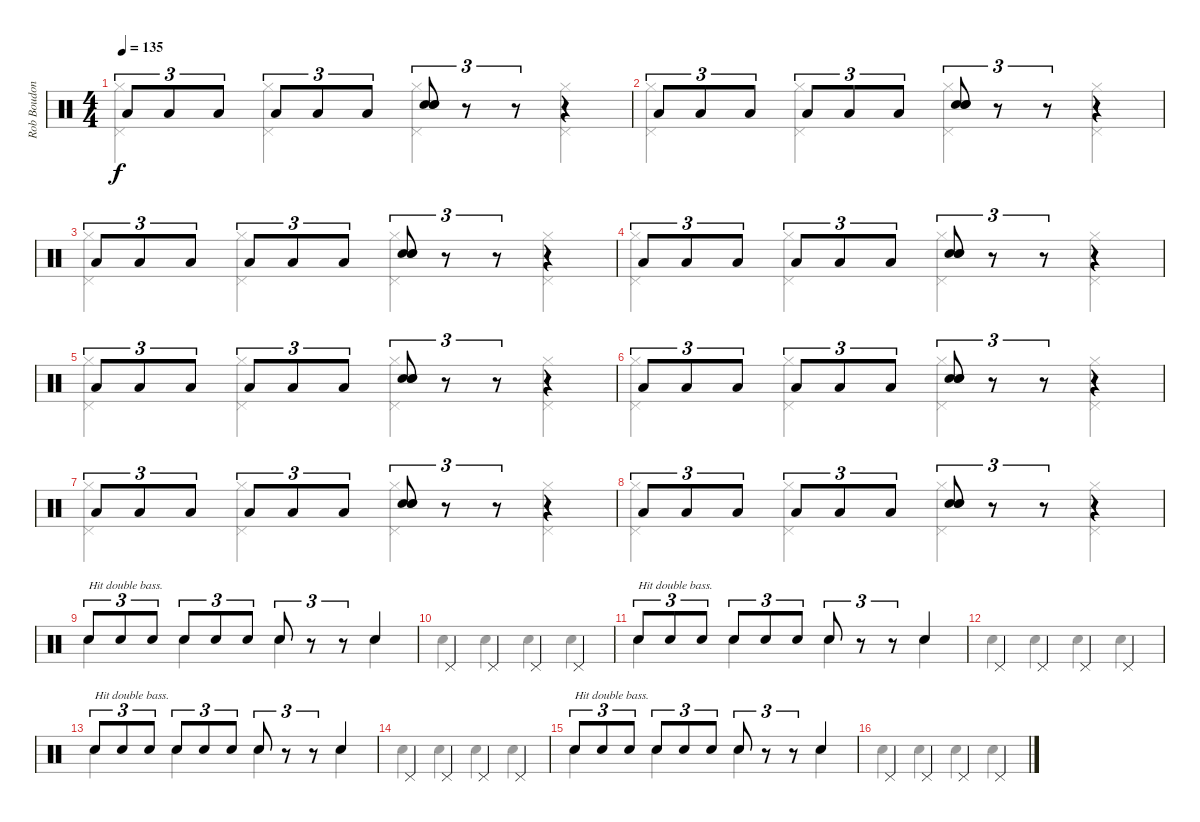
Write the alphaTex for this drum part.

\track ("Rob Boudon [Drums]" "Rob Boudon") {instrument percussion}
\staff {score}
\articulation defaults
\voice
\ts (4 4)
\tempo 135
\clef neutral
\ks c "Low Tom (hit)".8{tu (3 2) dy f} "Low Tom (hit)".8{tu (3 2)} "Low Tom (hit)".8{tu (3 2)} "Low Tom (hit)".8{tu (3 2)} "Low Tom (hit)".8{tu (3 2)} "Low Tom (hit)".8{tu (3 2)}
("Hand Clap (hit)" "Electric Snare (hit)" "Snare (hit) 2").8{tu (3 2)} r.8{tu (3 2)} r.8{tu (3 2)} r.4 |
"Low Tom (hit)".8{tu (3 2)} "Low Tom (hit)".8{tu (3 2)} "Low Tom (hit)".8{tu (3 2)} "Low Tom (hit)".8{tu (3 2)} "Low Tom (hit)".8{tu (3 2)} "Low Tom (hit)".8{tu (3 2)} ("Hand Clap (hit)" "Electric Snare (hit)" "Snare (hit) 2").8{tu (3 2)} r.8{tu (3 2)} r.8{tu (3 2)} r.4 |
"Low Tom (hit)".8{tu (3 2)} "Low Tom (hit)".8{tu (3 2)} "Low Tom (hit)".8{tu (3 2)} "Low Tom (hit)".8{tu (3 2)} "Low Tom (hit)".8{tu (3 2)} "Low Tom (hit)".8{tu (3 2)} ("Hand Clap (hit)" "Electric Snare (hit)" "Snare (hit) 2").8{tu (3 2)} r.8{tu (3 2)} r.8{tu (3 2)} r.4 |
"Low Tom (hit)".8{tu (3 2)} "Low Tom (hit)".8{tu (3 2)} "Low Tom (hit)".8{tu (3 2)} "Low Tom (hit)".8{tu (3 2)} "Low Tom (hit)".8{tu (3 2)} "Low Tom (hit)".8{tu (3 2)} ("Hand Clap (hit)" "Electric Snare (hit)" "Snare (hit) 2").8{tu (3 2)} r.8{tu (3 2)} r.8{tu (3 2)} r.4 |
"Low Tom (hit)".8{tu (3 2)} "Low Tom (hit)".8{tu (3 2)} "Low Tom (hit)".8{tu (3 2)} "Low Tom (hit)".8{tu (3 2)} "Low Tom (hit)".8{tu (3 2)} "Low Tom (hit)".8{tu (3 2)} ("Hand Clap (hit)" "Electric Snare (hit)" "Snare (hit) 2").8{tu (3 2)} r.8{tu (3 2)} r.8{tu (3 2)} r.4 |
"Low Tom (hit)".8{tu (3 2)} "Low Tom (hit)".8{tu (3 2)} "Low Tom (hit)".8{tu (3 2)} "Low Tom (hit)".8{tu (3 2)} "Low Tom (hit)".8{tu (3 2)} "Low Tom (hit)".8{tu (3 2)} ("Hand Clap (hit)" "Electric Snare (hit)" "Snare (hit) 2").8{tu (3 2)} r.8{tu (3 2)} r.8{tu (3 2)} r.4 |
"Low Tom (hit)".8{tu (3 2)} "Low Tom (hit)".8{tu (3 2)} "Low Tom (hit)".8{tu (3 2)} "Low Tom (hit)".8{tu (3 2)} "Low Tom (hit)".8{tu (3 2)} "Low Tom (hit)".8{tu (3 2)} ("Hand Clap (hit)" "Electric Snare (hit)" "Snare (hit) 2").8{tu (3 2)} r.8{tu (3 2)} r.8{tu (3 2)} r.4 |
"Low Tom (hit)".8{tu (3 2)} "Low Tom (hit)".8{tu (3 2)} "Low Tom (hit)".8{tu (3 2)} "Low Tom (hit)".8{tu (3 2)} "Low Tom (hit)".8{tu (3 2)} "Low Tom (hit)".8{tu (3 2)} ("Hand Clap (hit)" "Electric Snare (hit)" "Snare (hit) 2").8{tu (3 2)} r.8{tu (3 2)} r.8{tu (3 2)} r.4 |
"Snare (hit) 2".8{tu (3 2) txt "Hit double bass."} "Snare (hit) 2".8{tu (3 2)} "Snare (hit) 2".8{tu (3 2)} "Snare (hit) 2".8{tu (3 2)} "Snare (hit) 2".8{tu (3 2)} "Snare (hit) 2".8{tu (3 2)} "Snare (hit) 2".8{tu (3 2)} r.8{tu (3 2)} r.8{tu (3 2)} "Hand Clap (hit)".4 |
"Pedal Hi-Hat (hit)".4 "Pedal Hi-Hat (hit)".4 "Pedal Hi-Hat (hit)".4 "Pedal Hi-Hat (hit)".4 |
"Snare (hit) 2".8{tu (3 2) txt "Hit double bass."} "Snare (hit) 2".8{tu (3 2)} "Snare (hit) 2".8{tu (3 2)} "Snare (hit) 2".8{tu (3 2)} "Snare (hit) 2".8{tu (3 2)} "Snare (hit) 2".8{tu (3 2)} "Snare (hit) 2".8{tu (3 2)} r.8{tu (3 2)} r.8{tu (3 2)} "Hand Clap (hit)".4 |
"Pedal Hi-Hat (hit)".4 "Pedal Hi-Hat (hit)".4 "Pedal Hi-Hat (hit)".4 "Pedal Hi-Hat (hit)".4 |
"Snare (hit) 2".8{tu (3 2) txt "Hit double bass."} "Snare (hit) 2".8{tu (3 2)} "Snare (hit) 2".8{tu (3 2)} "Snare (hit) 2".8{tu (3 2)} "Snare (hit) 2".8{tu (3 2)} "Snare (hit) 2".8{tu (3 2)} "Snare (hit) 2".8{tu (3 2)} r.8{tu (3 2)} r.8{tu (3 2)} "Hand Clap (hit)".4 |
"Pedal Hi-Hat (hit)".4 "Pedal Hi-Hat (hit)".4 "Pedal Hi-Hat (hit)".4 "Pedal Hi-Hat (hit)".4 |
"Snare (hit) 2".8{tu (3 2) txt "Hit double bass."} "Snare (hit) 2".8{tu (3 2)} "Snare (hit) 2".8{tu (3 2)} "Snare (hit) 2".8{tu (3 2)} "Snare (hit) 2".8{tu (3 2)} "Snare (hit) 2".8{tu (3 2)} "Snare (hit) 2".8{tu (3 2)} r.8{tu (3 2)} r.8{tu (3 2)} "Hand Clap (hit)".4 |
"Pedal Hi-Hat (hit)".4 "Pedal Hi-Hat (hit)".4 "Pedal Hi-Hat (hit)".4 "Pedal Hi-Hat (hit)".4
\voice
\clef neutral
\ottava regular
\simile none
\ks c
("Hi-Hat (closed)" "Pedal Hi-Hat (hit)").4{dy f} ("Hi-Hat (closed)" "Pedal Hi-Hat (hit)").4 ("Hi-Hat (closed)" "Pedal Hi-Hat (hit)").4 ("Hi-Hat (closed)" "Pedal Hi-Hat (hit)").4 |
("Hi-Hat (closed)" "Pedal Hi-Hat (hit)").4 ("Hi-Hat (closed)" "Pedal Hi-Hat (hit)").4 ("Hi-Hat (closed)" "Pedal Hi-Hat (hit)").4 ("Hi-Hat (closed)" "Pedal Hi-Hat (hit)").4 |
("Hi-Hat (closed)" "Pedal Hi-Hat (hit)").4 ("Hi-Hat (closed)" "Pedal Hi-Hat (hit)").4 ("Hi-Hat (closed)" "Pedal Hi-Hat (hit)").4 ("Hi-Hat (closed)" "Pedal Hi-Hat (hit)").4 |
("Hi-Hat (closed)" "Pedal Hi-Hat (hit)").4 ("Hi-Hat (closed)" "Pedal Hi-Hat (hit)").4 ("Hi-Hat (closed)" "Pedal Hi-Hat (hit)").4 ("Hi-Hat (closed)" "Pedal Hi-Hat (hit)").4 |
("Hi-Hat (closed)" "Pedal Hi-Hat (hit)").4 ("Hi-Hat (closed)" "Pedal Hi-Hat (hit)").4 ("Hi-Hat (closed)" "Pedal Hi-Hat (hit)").4 ("Hi-Hat (closed)" "Pedal Hi-Hat (hit)").4 |
("Hi-Hat (closed)" "Pedal Hi-Hat (hit)").4 ("Hi-Hat (closed)" "Pedal Hi-Hat (hit)").4 ("Hi-Hat (closed)" "Pedal Hi-Hat (hit)").4 ("Hi-Hat (closed)" "Pedal Hi-Hat (hit)").4 |
("Hi-Hat (closed)" "Pedal Hi-Hat (hit)").4 ("Hi-Hat (closed)" "Pedal Hi-Hat (hit)").4 ("Hi-Hat (closed)" "Pedal Hi-Hat (hit)").4 ("Hi-Hat (closed)" "Pedal Hi-Hat (hit)").4 |
("Hi-Hat (closed)" "Pedal Hi-Hat (hit)").4 ("Hi-Hat (closed)" "Pedal Hi-Hat (hit)").4 ("Hi-Hat (closed)" "Pedal Hi-Hat (hit)").4 ("Hi-Hat (closed)" "Pedal Hi-Hat (hit)").4 |
"Hand Clap (hit)".4 "Hand Clap (hit)".4 "Hand Clap (hit)".4 "Hand Clap (hit)".4 |
"Hand Clap (hit)".4 "Hand Clap (hit)".4 "Hand Clap (hit)".4 "Hand Clap (hit)".4 |
"Hand Clap (hit)".4 "Hand Clap (hit)".4 "Hand Clap (hit)".4 "Hand Clap (hit)".4 |
"Hand Clap (hit)".4 "Hand Clap (hit)".4 "Hand Clap (hit)".4 "Hand Clap (hit)".4 |
"Hand Clap (hit)".4 "Hand Clap (hit)".4 "Hand Clap (hit)".4 "Hand Clap (hit)".4 |
"Hand Clap (hit)".4 "Hand Clap (hit)".4 "Hand Clap (hit)".4 "Hand Clap (hit)".4 |
"Hand Clap (hit)".4 "Hand Clap (hit)".4 "Hand Clap (hit)".4 "Hand Clap (hit)".4 |
"Hand Clap (hit)".4 "Hand Clap (hit)".4 "Hand Clap (hit)".4 "Hand Clap (hit)".4
